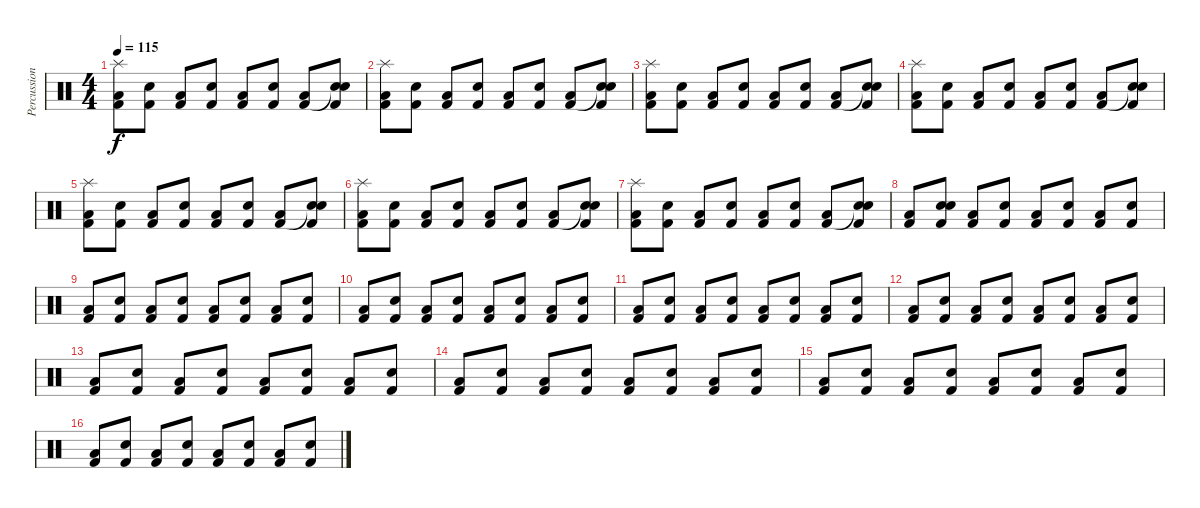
\track ("Percussions" "Percussion") {instrument percussion}
\staff {score}
\articulation defaults
\ts (4 4)
\tempo 115
\clef neutral
\ks c
("Splash (hit)" "Kick (hit) 2" "Low Floor Tom (hit)").8{dy f} ("Kick (hit) 2" "Electric Snare (hit)").8 ("Kick (hit) 2" "Low Floor Tom (hit)").8 ("Kick (hit) 2" "Electric Snare (hit)").8 ("Kick (hit) 2" "Low Floor Tom (hit)").8 ("Kick (hit) 2" "Electric Snare (hit)").8 ("Kick (hit) 2" "Low Floor Tom (hit)").8 ("Snare (hit)"{t} "Kick (hit) 2" "Electric Snare (hit)").8 |
("Splash (hit)" "Kick (hit) 2" "Low Floor Tom (hit)").8 ("Kick (hit) 2" "Electric Snare (hit)").8 ("Kick (hit) 2" "Low Floor Tom (hit)").8 ("Kick (hit) 2" "Electric Snare (hit)").8 ("Kick (hit) 2" "Low Floor Tom (hit)").8 ("Kick (hit) 2" "Electric Snare (hit)").8 ("Kick (hit) 2" "Low Floor Tom (hit)").8 ("Snare (hit)"{t} "Kick (hit) 2" "Electric Snare (hit)").8 |
("Splash (hit)" "Kick (hit) 2" "Low Floor Tom (hit)").8 ("Kick (hit) 2" "Electric Snare (hit)").8 ("Kick (hit) 2" "Low Floor Tom (hit)").8 ("Kick (hit) 2" "Electric Snare (hit)").8 ("Kick (hit) 2" "Low Floor Tom (hit)").8 ("Kick (hit) 2" "Electric Snare (hit)").8 ("Kick (hit) 2" "Low Floor Tom (hit)").8 ("Snare (hit)"{t} "Kick (hit) 2" "Electric Snare (hit)").8 |
("Splash (hit)" "Kick (hit) 2" "Low Floor Tom (hit)").8 ("Kick (hit) 2" "Electric Snare (hit)").8 ("Kick (hit) 2" "Low Floor Tom (hit)").8 ("Kick (hit) 2" "Electric Snare (hit)").8 ("Kick (hit) 2" "Low Floor Tom (hit)").8 ("Kick (hit) 2" "Electric Snare (hit)").8 ("Kick (hit) 2" "Low Floor Tom (hit)").8 ("Snare (hit)"{t} "Kick (hit) 2" "Electric Snare (hit)").8 |
("Splash (hit)" "Kick (hit) 2" "Low Floor Tom (hit)").8 ("Kick (hit) 2" "Electric Snare (hit)").8 ("Kick (hit) 2" "Low Floor Tom (hit)").8 ("Kick (hit) 2" "Electric Snare (hit)").8 ("Kick (hit) 2" "Low Floor Tom (hit)").8 ("Kick (hit) 2" "Electric Snare (hit)").8 ("Kick (hit) 2" "Low Floor Tom (hit)").8 ("Snare (hit)"{t} "Kick (hit) 2" "Electric Snare (hit)").8 |
("Splash (hit)" "Kick (hit) 2" "Low Floor Tom (hit)").8 ("Kick (hit) 2" "Electric Snare (hit)").8 ("Kick (hit) 2" "Low Floor Tom (hit)").8 ("Kick (hit) 2" "Electric Snare (hit)").8 ("Kick (hit) 2" "Low Floor Tom (hit)").8 ("Kick (hit) 2" "Electric Snare (hit)").8 ("Kick (hit) 2" "Low Floor Tom (hit)").8 ("Snare (hit)"{t} "Kick (hit) 2" "Electric Snare (hit)").8 |
("Splash (hit)" "Kick (hit) 2" "Low Floor Tom (hit)").8 ("Kick (hit) 2" "Electric Snare (hit)").8 ("Kick (hit) 2" "Low Floor Tom (hit)").8 ("Kick (hit) 2" "Electric Snare (hit)").8 ("Kick (hit) 2" "Low Floor Tom (hit)").8 ("Kick (hit) 2" "Electric Snare (hit)").8 ("Kick (hit) 2" "Low Floor Tom (hit)").8 ("Snare (hit)"{t} "Kick (hit) 2" "Electric Snare (hit)").8 |
("Kick (hit) 2" "Low Floor Tom (hit)").8 ("Kick (hit) 2" "Electric Snare (hit)" "Snare (hit)").8 ("Kick (hit) 2" "Low Floor Tom (hit)").8 ("Kick (hit) 2" "Electric Snare (hit)").8 ("Kick (hit) 2" "Low Floor Tom (hit)").8 ("Kick (hit) 2" "Electric Snare (hit)").8 ("Kick (hit) 2" "Low Floor Tom (hit)").8 ("Kick (hit) 2" "Electric Snare (hit)").8 |
("Kick (hit) 2" "Low Floor Tom (hit)").8 ("Kick (hit) 2" "Electric Snare (hit)").8 ("Kick (hit) 2" "Low Floor Tom (hit)").8 ("Kick (hit) 2" "Electric Snare (hit)").8 ("Kick (hit) 2" "Low Floor Tom (hit)").8 ("Kick (hit) 2" "Electric Snare (hit)").8 ("Kick (hit) 2" "Low Floor Tom (hit)").8 ("Kick (hit) 2" "Electric Snare (hit)").8 |
("Kick (hit) 2" "Low Floor Tom (hit)").8 ("Kick (hit) 2" "Electric Snare (hit)").8 ("Kick (hit) 2" "Low Floor Tom (hit)").8 ("Kick (hit) 2" "Electric Snare (hit)").8 ("Kick (hit) 2" "Low Floor Tom (hit)").8 ("Kick (hit) 2" "Electric Snare (hit)").8 ("Kick (hit) 2" "Low Floor Tom (hit)").8 ("Kick (hit) 2" "Electric Snare (hit)").8 |
("Kick (hit) 2" "Low Floor Tom (hit)").8 ("Kick (hit) 2" "Electric Snare (hit)").8 ("Kick (hit) 2" "Low Floor Tom (hit)").8 ("Kick (hit) 2" "Electric Snare (hit)").8 ("Kick (hit) 2" "Low Floor Tom (hit)").8 ("Kick (hit) 2" "Electric Snare (hit)").8 ("Kick (hit) 2" "Low Floor Tom (hit)").8 ("Kick (hit) 2" "Electric Snare (hit)").8 |
("Kick (hit) 2" "Low Floor Tom (hit)").8 ("Kick (hit) 2" "Electric Snare (hit)").8 ("Kick (hit) 2" "Low Floor Tom (hit)").8 ("Kick (hit) 2" "Electric Snare (hit)").8 ("Kick (hit) 2" "Low Floor Tom (hit)").8 ("Kick (hit) 2" "Electric Snare (hit)").8 ("Kick (hit) 2" "Low Floor Tom (hit)").8 ("Kick (hit) 2" "Electric Snare (hit)").8 |
("Kick (hit) 2" "Low Floor Tom (hit)").8 ("Kick (hit) 2" "Electric Snare (hit)").8 ("Kick (hit) 2" "Low Floor Tom (hit)").8 ("Kick (hit) 2" "Electric Snare (hit)").8 ("Kick (hit) 2" "Low Floor Tom (hit)").8 ("Kick (hit) 2" "Electric Snare (hit)").8 ("Kick (hit) 2" "Low Floor Tom (hit)").8 ("Kick (hit) 2" "Electric Snare (hit)").8 |
("Kick (hit) 2" "Low Floor Tom (hit)").8 ("Kick (hit) 2" "Electric Snare (hit)").8 ("Kick (hit) 2" "Low Floor Tom (hit)").8 ("Kick (hit) 2" "Electric Snare (hit)").8 ("Kick (hit) 2" "Low Floor Tom (hit)").8 ("Kick (hit) 2" "Electric Snare (hit)").8 ("Kick (hit) 2" "Low Floor Tom (hit)").8 ("Kick (hit) 2" "Electric Snare (hit)").8 |
("Kick (hit) 2" "Low Floor Tom (hit)").8 ("Kick (hit) 2" "Electric Snare (hit)").8 ("Kick (hit) 2" "Low Floor Tom (hit)").8 ("Kick (hit) 2" "Electric Snare (hit)").8 ("Kick (hit) 2" "Low Floor Tom (hit)").8 ("Kick (hit) 2" "Electric Snare (hit)").8 ("Kick (hit) 2" "Low Floor Tom (hit)").8 ("Kick (hit) 2" "Electric Snare (hit)").8 |
("Kick (hit) 2" "Low Floor Tom (hit)").8 ("Kick (hit) 2" "Electric Snare (hit)").8 ("Kick (hit) 2" "Low Floor Tom (hit)").8 ("Kick (hit) 2" "Electric Snare (hit)").8 ("Kick (hit) 2" "Low Floor Tom (hit)").8 ("Kick (hit) 2" "Electric Snare (hit)").8 ("Kick (hit) 2" "Low Floor Tom (hit)").8 ("Kick (hit) 2" "Electric Snare (hit)").8
